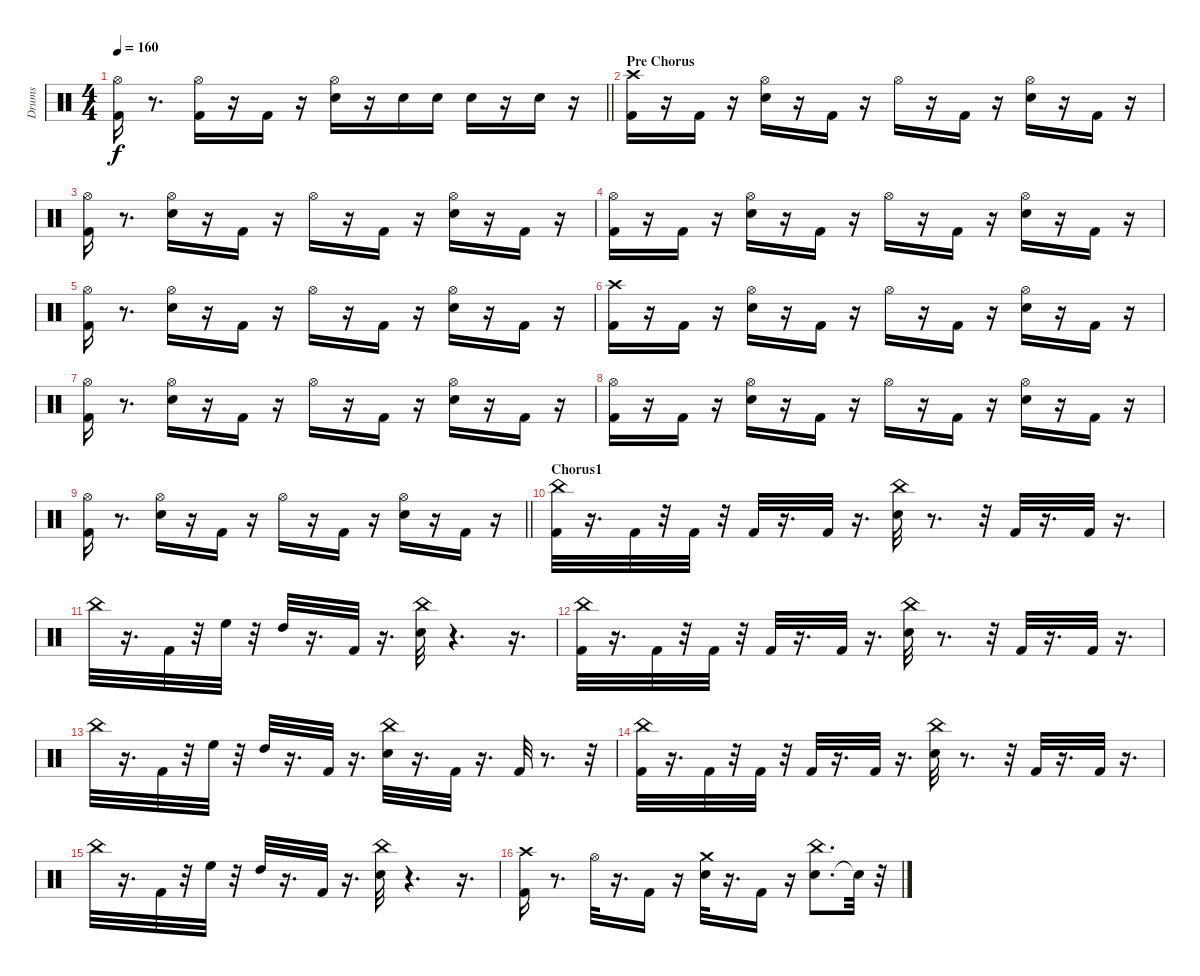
\track ("Drums" "Drums") {instrument percussion}
\staff {score}
\articulation defaults
\ts (4 4)
\tempo 160
\clef neutral
\barLineRight lightlight
\ks c
("Kick (hit) 2" "Hi-Hat (open)").16{dy f} r.8{d} ("Kick (hit) 2" "Hi-Hat (open)").16 r.16 "Kick (hit) 2".16 r.16 ("Snare (hit) 2" "Hi-Hat (open)").16 r.16 "Snare (hit) 2".16 "Snare (hit) 2".16 "Snare (hit) 2".16 r.16 "Snare (hit) 2".16 r.16 |
\section ("" "Pre Chorus")
("Kick (hit) 2" "Crash high (hit)").16 r.16 "Kick (hit) 2".16 r.16 ("Snare (hit) 2" "Hi-Hat (open)").16 r.16 "Kick (hit) 2".16 r.16 "Hi-Hat (open)".16 r.16 "Kick (hit) 2".16 r.16 ("Snare (hit) 2" "Hi-Hat (open)").16 r.16 "Kick (hit) 2".16 r.16 |
("Kick (hit) 2" "Hi-Hat (open)").16 r.8{d} ("Snare (hit) 2" "Hi-Hat (open)").16 r.16 "Kick (hit) 2".16 r.16 "Hi-Hat (open)".16 r.16 "Kick (hit) 2".16 r.16 ("Snare (hit) 2" "Hi-Hat (open)").16 r.16 "Kick (hit) 2".16 r.16 |
("Kick (hit) 2" "Hi-Hat (open)").16 r.16 "Kick (hit) 2".16 r.16 ("Snare (hit) 2" "Hi-Hat (open)").16 r.16 "Kick (hit) 2".16 r.16 "Hi-Hat (open)".16 r.16 "Kick (hit) 2".16 r.16 ("Snare (hit) 2" "Hi-Hat (open)").16 r.16 "Kick (hit) 2".16 r.16 |
("Kick (hit) 2" "Hi-Hat (open)").16 r.8{d} ("Snare (hit) 2" "Hi-Hat (open)").16 r.16 "Kick (hit) 2".16 r.16 "Hi-Hat (open)".16 r.16 "Kick (hit) 2".16 r.16 ("Snare (hit) 2" "Hi-Hat (open)").16 r.16 "Kick (hit) 2".16 r.16 |
("Kick (hit) 2" "Crash high (hit)").16 r.16 "Kick (hit) 2".16 r.16 ("Snare (hit) 2" "Hi-Hat (open)").16 r.16 "Kick (hit) 2".16 r.16 "Hi-Hat (open)".16 r.16 "Kick (hit) 2".16 r.16 ("Snare (hit) 2" "Hi-Hat (open)").16 r.16 "Kick (hit) 2".16 r.16 |
("Kick (hit) 2" "Hi-Hat (open)").16 r.8{d} ("Snare (hit) 2" "Hi-Hat (open)").16 r.16 "Kick (hit) 2".16 r.16 "Hi-Hat (open)".16 r.16 "Kick (hit) 2".16 r.16 ("Snare (hit) 2" "Hi-Hat (open)").16 r.16 "Kick (hit) 2".16 r.16 |
("Kick (hit) 2" "Hi-Hat (open)").16 r.16 "Kick (hit) 2".16 r.16 ("Snare (hit) 2" "Hi-Hat (open)").16 r.16 "Kick (hit) 2".16 r.16 "Hi-Hat (open)".16 r.16 "Kick (hit) 2".16 r.16 ("Snare (hit) 2" "Hi-Hat (open)").16 r.16 "Kick (hit) 2".16 r.16 |
\barLineRight lightlight
("Kick (hit) 2" "Hi-Hat (open)").16 r.8{d} ("Snare (hit) 2" "Hi-Hat (open)").16 r.16 "Kick (hit) 2".16 r.16 "Hi-Hat (open)".16 r.16 "Kick (hit) 2".16 r.16 ("Snare (hit) 2" "Hi-Hat (open)").16 r.16 "Kick (hit) 2".16 r.16 |
\section ("" "Chorus1")
("Kick (hit) 2" "China (hit)").32 r.16{d} "Kick (hit) 2".32 r.32 "Kick (hit) 2".32 r.32 "Kick (hit) 2".32 r.16{d} "Kick (hit) 2".32 r.16{d} ("Snare (hit) 2" "China (hit)").32 r.8{d} r.32 "Kick (hit) 2".32 r.16{d} "Kick (hit) 2".32 r.16{d} |
"China (hit)".32 r.16{d} "Kick (hit) 2".32 r.32 "High Floor Tom (hit)".32 r.32 "High Tom (hit)".32 r.16{d} "Kick (hit) 2".32 r.16{d} ("Snare (hit) 2" "China (hit)").32 r.4{d} r.16{d} |
("Kick (hit) 2" "China (hit)").32 r.16{d} "Kick (hit) 2".32 r.32 "Kick (hit) 2".32 r.32 "Kick (hit) 2".32 r.16{d} "Kick (hit) 2".32 r.16{d} ("Snare (hit) 2" "China (hit)").32 r.8{d} r.32 "Kick (hit) 2".32 r.16{d} "Kick (hit) 2".32 r.16{d} |
"China (hit)".32 r.16{d} "Kick (hit) 2".32 r.32 "High Floor Tom (hit)".32 r.32 "High Tom (hit)".32 r.16{d} "Kick (hit) 2".32 r.16{d} ("Snare (hit) 2" "China (hit)").32 r.16{d} "Kick (hit) 2".32 r.16{d} "Kick (hit) 2".32 r.8{d} r.32 |
("Kick (hit) 2" "China (hit)").32 r.16{d} "Kick (hit) 2".32 r.32 "Kick (hit) 2".32 r.32 "Kick (hit) 2".32 r.16{d} "Kick (hit) 2".32 r.16{d} ("Snare (hit) 2" "China (hit)").32 r.8{d} r.32 "Kick (hit) 2".32 r.16{d} "Kick (hit) 2".32 r.16{d} |
"China (hit)".32 r.16{d} "Kick (hit) 2".32 r.32 "High Floor Tom (hit)".32 r.32 "High Tom (hit)".32 r.16{d} "Kick (hit) 2".32 r.16{d} ("Snare (hit) 2" "China (hit)").32 r.4{d} r.16{d} |
("Kick (hit) 2" "Crash high (hit)").16 r.8{d} "Hi-Hat (open)".32 r.16{d} "Kick (hit) 2".16 r.16 ("Snare (hit) 2" "Crash medium (hit)").32 r.16{d} "Kick (hit) 2".16 r.16 ("Snare (hit) 2" "China (hit)").8{d} "Snare (hit)"{t}.32 r.32
